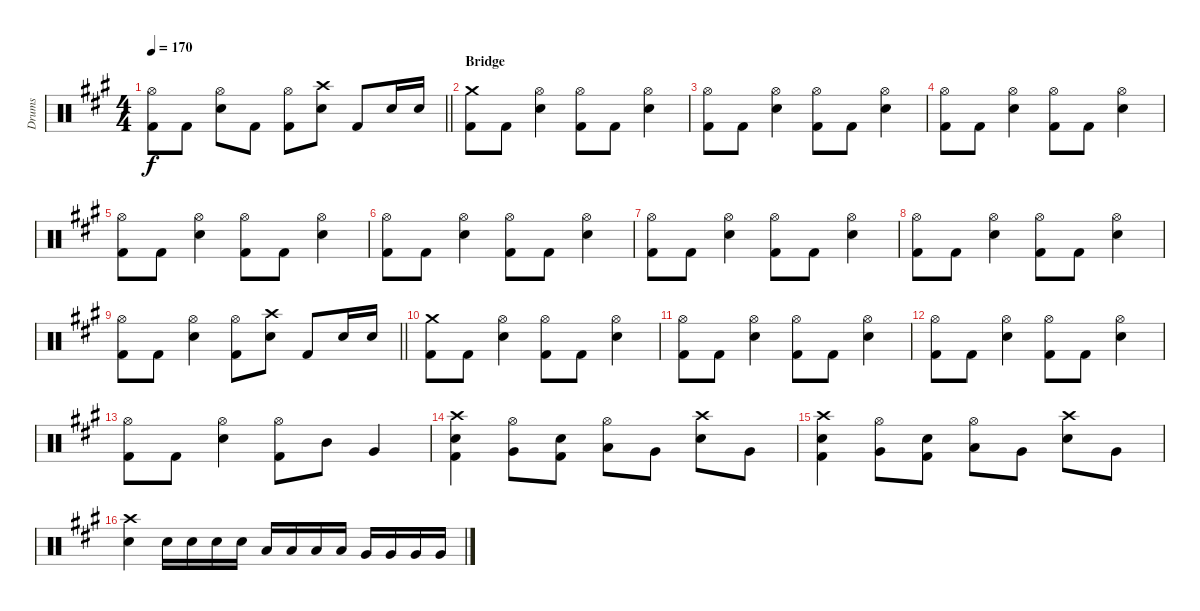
\track ("Drums" "Drums") {instrument percussion}
\staff {score}
\articulation defaults
\ts (4 4)
\tempo 170
\clef neutral
\barLineRight lightlight
\ks f#minor
("Hi-Hat (open)" "Kick (hit) 2").8{dy f} "Kick (hit) 2".8 ("Hi-Hat (open)" "Snare (hit) 2").8 "Kick (hit) 2".8 ("Hi-Hat (open)" "Kick (hit) 2").8 ("Crash high (hit)" "Snare (hit) 2").8 "Kick (hit) 2".8 "Snare (hit) 2".16 "Snare (hit) 2".16 |
\section ("" "Bridge")
("Crash medium (hit)" "Kick (hit) 2").8 "Kick (hit) 2".8 ("Hi-Hat (open)" "Snare (hit) 2").4 ("Hi-Hat (open)" "Kick (hit) 2").8 "Kick (hit) 2".8 ("Hi-Hat (open)" "Snare (hit) 2").4 |
("Hi-Hat (open)" "Kick (hit) 2").8 "Kick (hit) 2".8 ("Hi-Hat (open)" "Snare (hit) 2").4 ("Hi-Hat (open)" "Kick (hit) 2").8 "Kick (hit) 2".8 ("Hi-Hat (open)" "Snare (hit) 2").4 |
("Hi-Hat (open)" "Kick (hit) 2").8 "Kick (hit) 2".8 ("Hi-Hat (open)" "Snare (hit) 2").4 ("Hi-Hat (open)" "Kick (hit) 2").8 "Kick (hit) 2".8 ("Hi-Hat (open)" "Snare (hit) 2").4 |
("Hi-Hat (open)" "Kick (hit) 2").8 "Kick (hit) 2".8 ("Hi-Hat (open)" "Snare (hit) 2").4 ("Hi-Hat (open)" "Kick (hit) 2").8 "Kick (hit) 2".8 ("Hi-Hat (open)" "Snare (hit) 2").4 |
("Hi-Hat (open)" "Kick (hit) 2").8 "Kick (hit) 2".8 ("Hi-Hat (open)" "Snare (hit) 2").4 ("Hi-Hat (open)" "Kick (hit) 2").8 "Kick (hit) 2".8 ("Hi-Hat (open)" "Snare (hit) 2").4 |
("Hi-Hat (open)" "Kick (hit) 2").8 "Kick (hit) 2".8 ("Hi-Hat (open)" "Snare (hit) 2").4 ("Hi-Hat (open)" "Kick (hit) 2").8 "Kick (hit) 2".8 ("Hi-Hat (open)" "Snare (hit) 2").4 |
("Hi-Hat (open)" "Kick (hit) 2").8 "Kick (hit) 2".8 ("Hi-Hat (open)" "Snare (hit) 2").4 ("Hi-Hat (open)" "Kick (hit) 2").8 "Kick (hit) 2".8 ("Hi-Hat (open)" "Snare (hit) 2").4 |
\barLineRight lightlight
("Hi-Hat (open)" "Kick (hit) 2").8 "Kick (hit) 2".8 ("Hi-Hat (open)" "Snare (hit) 2").4 ("Hi-Hat (open)" "Kick (hit) 2").8 ("Crash high (hit)" "Snare (hit) 2").8 "Kick (hit) 2".8 "Snare (hit) 2".16 "Snare (hit) 2".16 |
("Crash medium (hit)" "Kick (hit) 2").8 "Kick (hit) 2".8 ("Hi-Hat (open)" "Snare (hit) 2").4 ("Hi-Hat (open)" "Kick (hit) 2").8 "Kick (hit) 2".8 ("Hi-Hat (open)" "Snare (hit) 2").4 |
("Hi-Hat (open)" "Kick (hit) 2").8 "Kick (hit) 2".8 ("Hi-Hat (open)" "Snare (hit) 2").4 ("Hi-Hat (open)" "Kick (hit) 2").8 "Kick (hit) 2".8 ("Hi-Hat (open)" "Snare (hit) 2").4 |
("Hi-Hat (open)" "Kick (hit) 2").8 "Kick (hit) 2".8 ("Hi-Hat (open)" "Snare (hit) 2").4 ("Hi-Hat (open)" "Kick (hit) 2").8 "Kick (hit) 2".8 ("Hi-Hat (open)" "Snare (hit) 2").4 |
("Hi-Hat (open)" "Kick (hit) 2").8 "Kick (hit) 2".8 ("Hi-Hat (open)" "Snare (hit) 2").4 ("Hi-Hat (open)" "Kick (hit) 2").8 "Mid Tom (hit)".8 "Very Low Tom (hit)".4 |
("Crash high (hit)" "Snare (hit) 2" "Kick (hit) 2").4 ("Hi-Hat (open)" "Very Low Tom (hit)").8 ("Snare (hit) 2" "Kick (hit) 2").8 ("Hi-Hat (open)" "Low Tom (hit)").8 "Very Low Tom (hit)".8 ("Crash high (hit)" "Snare (hit) 2").8 "Very Low Tom (hit)".8 |
("Crash high (hit)" "Snare (hit) 2" "Kick (hit) 2").4 ("Hi-Hat (open)" "Very Low Tom (hit)").8 ("Snare (hit) 2" "Kick (hit) 2").8 ("Hi-Hat (open)" "Low Tom (hit)").8 "Very Low Tom (hit)".8 ("Crash high (hit)" "Snare (hit) 2").8 "Very Low Tom (hit)".8 |
("Crash high (hit)" "Snare (hit) 2").4 "Snare (hit) 2".16 "Snare (hit) 2".16 "Snare (hit) 2".16 "Snare (hit) 2".16 "Low Tom (hit)".16 "Low Tom (hit)".16 "Low Tom (hit)".16 "Low Tom (hit)".16 "Very Low Tom (hit)".16 "Very Low Tom (hit)".16 "Very Low Tom (hit)".16 "Very Low Tom (hit)".16
